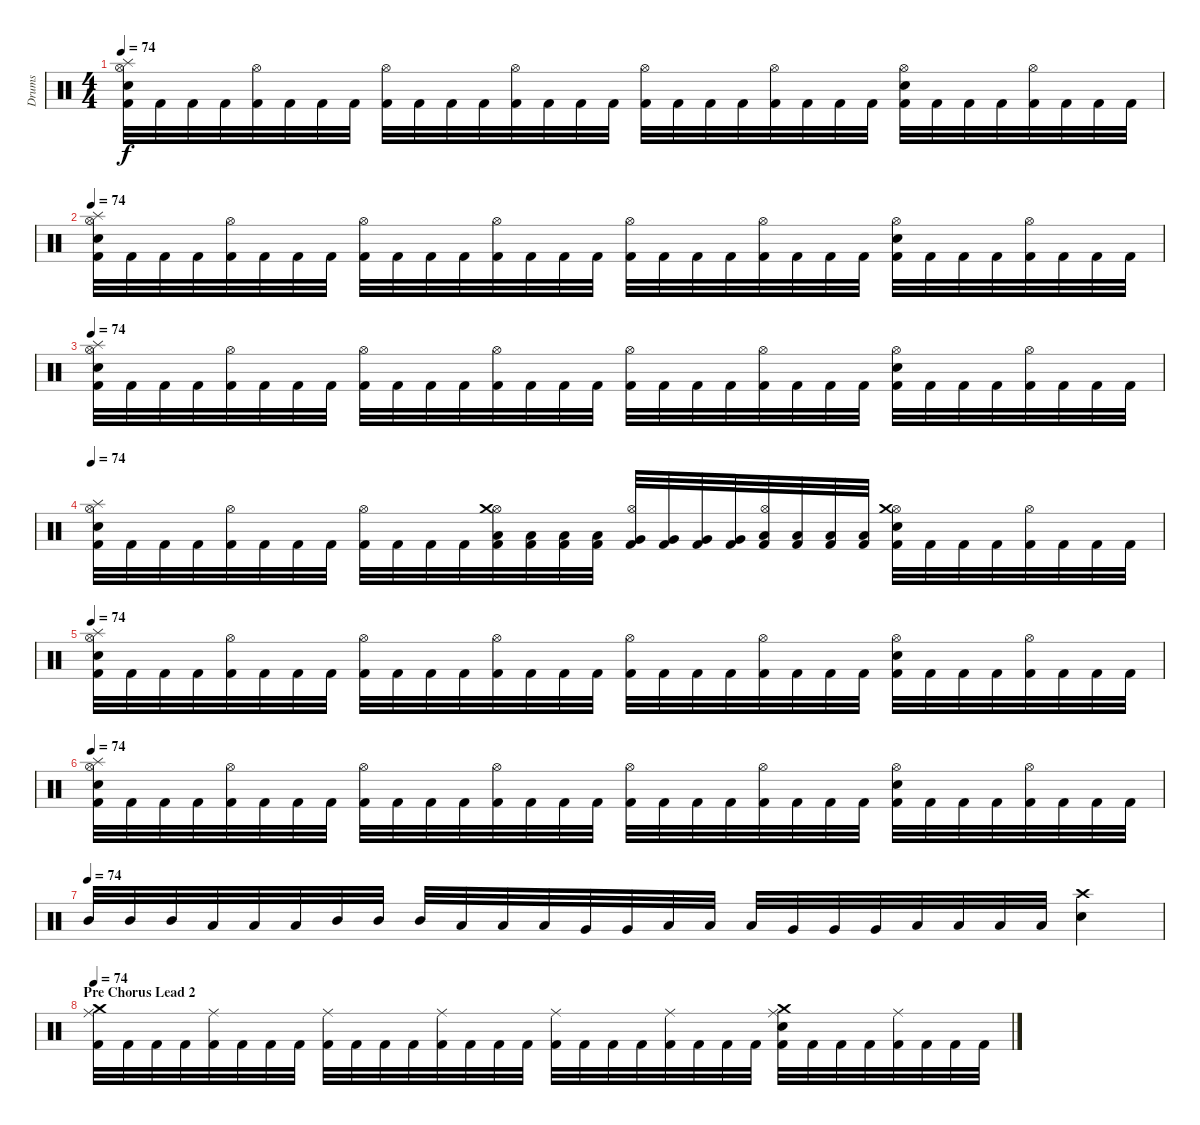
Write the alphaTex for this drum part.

\track ("Drums" "Drums") {instrument percussion}
\staff {score}
\articulation defaults
\ts (4 4)
\tempo 74
\clef neutral
\ks c
("Electric Snare (hit)" "Splash (hit)" "Kick (hit) 2" "Hi-Hat (open)").32{dy f} "Kick (hit) 2".32 "Kick (hit) 2".32 "Kick (hit) 2".32 ("Hi-Hat (open)" "Kick (hit) 2").32 "Kick (hit) 2".32 "Kick (hit) 2".32 "Kick (hit) 2".32 ("Hi-Hat (open)" "Kick (hit) 2").32 "Kick (hit) 2".32 "Kick (hit) 2".32 "Kick (hit) 2".32 ("Hi-Hat (open)" "Kick (hit) 2").32 "Kick (hit) 2".32 "Kick (hit) 2".32 "Kick (hit) 2".32 ("Hi-Hat (open)" "Kick (hit) 2").32 "Kick (hit) 2".32 "Kick (hit) 2".32 "Kick (hit) 2".32 ("Hi-Hat (open)" "Kick (hit) 2").32 "Kick (hit) 2".32 "Kick (hit) 2".32 "Kick (hit) 2".32 ("Hi-Hat (open)" "Electric Snare (hit)" "Kick (hit) 2").32 "Kick (hit) 2".32 "Kick (hit) 2".32 "Kick (hit) 2".32 ("Hi-Hat (open)" "Kick (hit) 2").32 "Kick (hit) 2".32 "Kick (hit) 2".32 "Kick (hit) 2".32 |
\tempo 74
("Hi-Hat (open)" "Kick (hit) 2" "Splash (hit)" "Electric Snare (hit)").32 "Kick (hit) 2".32 "Kick (hit) 2".32 "Kick (hit) 2".32 ("Hi-Hat (open)" "Kick (hit) 2").32 "Kick (hit) 2".32 "Kick (hit) 2".32 "Kick (hit) 2".32 ("Hi-Hat (open)" "Kick (hit) 2").32 "Kick (hit) 2".32 "Kick (hit) 2".32 "Kick (hit) 2".32 ("Hi-Hat (open)" "Kick (hit) 2").32 "Kick (hit) 2".32 "Kick (hit) 2".32 "Kick (hit) 2".32 ("Hi-Hat (open)" "Kick (hit) 2").32 "Kick (hit) 2".32 "Kick (hit) 2".32 "Kick (hit) 2".32 ("Hi-Hat (open)" "Kick (hit) 2").32 "Kick (hit) 2".32 "Kick (hit) 2".32 "Kick (hit) 2".32 ("Hi-Hat (open)" "Electric Snare (hit)" "Kick (hit) 2").32 "Kick (hit) 2".32 "Kick (hit) 2".32 "Kick (hit) 2".32 ("Hi-Hat (open)" "Kick (hit) 2").32 "Kick (hit) 2".32 "Kick (hit) 2".32 "Kick (hit) 2".32 |
\tempo 74
("Hi-Hat (open)" "Kick (hit) 2" "Splash (hit)" "Electric Snare (hit)").32 "Kick (hit) 2".32 "Kick (hit) 2".32 "Kick (hit) 2".32 ("Hi-Hat (open)" "Kick (hit) 2").32 "Kick (hit) 2".32 "Kick (hit) 2".32 "Kick (hit) 2".32 ("Hi-Hat (open)" "Kick (hit) 2").32 "Kick (hit) 2".32 "Kick (hit) 2".32 "Kick (hit) 2".32 ("Hi-Hat (open)" "Kick (hit) 2").32 "Kick (hit) 2".32 "Kick (hit) 2".32 "Kick (hit) 2".32 ("Hi-Hat (open)" "Kick (hit) 2").32 "Kick (hit) 2".32 "Kick (hit) 2".32 "Kick (hit) 2".32 ("Hi-Hat (open)" "Kick (hit) 2").32 "Kick (hit) 2".32 "Kick (hit) 2".32 "Kick (hit) 2".32 ("Hi-Hat (open)" "Electric Snare (hit)" "Kick (hit) 2").32 "Kick (hit) 2".32 "Kick (hit) 2".32 "Kick (hit) 2".32 ("Hi-Hat (open)" "Kick (hit) 2").32 "Kick (hit) 2".32 "Kick (hit) 2".32 "Kick (hit) 2".32 |
\tempo 74
("Electric Snare (hit)" "Splash (hit)" "Kick (hit) 2" "Hi-Hat (open)").32 "Kick (hit) 2".32 "Kick (hit) 2".32 "Kick (hit) 2".32 ("Hi-Hat (open)" "Kick (hit) 2").32 "Kick (hit) 2".32 "Kick (hit) 2".32 "Kick (hit) 2".32 ("Hi-Hat (open)" "Kick (hit) 2").32 "Kick (hit) 2".32 "Kick (hit) 2".32 "Kick (hit) 2".32 ("Hi-Hat (open)" "Kick (hit) 2" "Low Tom (hit)" "Crash medium (hit)").32 ("Kick (hit) 2" "Low Tom (hit)").32 ("Kick (hit) 2" "Low Tom (hit)").32 ("Kick (hit) 2" "Low Tom (hit)").32 ("Hi-Hat (open)" "Kick (hit) 2" "Very Low Tom (hit)").32 ("Kick (hit) 2" "Very Low Tom (hit)").32 ("Kick (hit) 2" "Very Low Tom (hit)").32 ("Kick (hit) 2" "Very Low Tom (hit)").32 ("Hi-Hat (open)" "Kick (hit) 2" "Low Floor Tom (hit)").32 ("Kick (hit) 2" "Low Floor Tom (hit)").32 ("Kick (hit) 2" "Low Floor Tom (hit)").32 ("Kick (hit) 2" "Low Floor Tom (hit)").32 ("Hi-Hat (open)" "Electric Snare (hit)" "Kick (hit) 2" "Crash medium (hit)").32 "Kick (hit) 2".32 "Kick (hit) 2".32 "Kick (hit) 2".32 ("Hi-Hat (open)" "Kick (hit) 2").32 "Kick (hit) 2".32 "Kick (hit) 2".32 "Kick (hit) 2".32 |
\tempo 74
("Electric Snare (hit)" "Splash (hit)" "Kick (hit) 2" "Hi-Hat (open)").32 "Kick (hit) 2".32 "Kick (hit) 2".32 "Kick (hit) 2".32 ("Hi-Hat (open)" "Kick (hit) 2").32 "Kick (hit) 2".32 "Kick (hit) 2".32 "Kick (hit) 2".32 ("Hi-Hat (open)" "Kick (hit) 2").32 "Kick (hit) 2".32 "Kick (hit) 2".32 "Kick (hit) 2".32 ("Hi-Hat (open)" "Kick (hit) 2").32 "Kick (hit) 2".32 "Kick (hit) 2".32 "Kick (hit) 2".32 ("Hi-Hat (open)" "Kick (hit) 2").32 "Kick (hit) 2".32 "Kick (hit) 2".32 "Kick (hit) 2".32 ("Hi-Hat (open)" "Kick (hit) 2").32 "Kick (hit) 2".32 "Kick (hit) 2".32 "Kick (hit) 2".32 ("Hi-Hat (open)" "Electric Snare (hit)" "Kick (hit) 2").32 "Kick (hit) 2".32 "Kick (hit) 2".32 "Kick (hit) 2".32 ("Hi-Hat (open)" "Kick (hit) 2").32 "Kick (hit) 2".32 "Kick (hit) 2".32 "Kick (hit) 2".32 |
\tempo 74
("Hi-Hat (open)" "Kick (hit) 2" "Splash (hit)" "Electric Snare (hit)").32 "Kick (hit) 2".32 "Kick (hit) 2".32 "Kick (hit) 2".32 ("Hi-Hat (open)" "Kick (hit) 2").32 "Kick (hit) 2".32 "Kick (hit) 2".32 "Kick (hit) 2".32 ("Hi-Hat (open)" "Kick (hit) 2").32 "Kick (hit) 2".32 "Kick (hit) 2".32 "Kick (hit) 2".32 ("Hi-Hat (open)" "Kick (hit) 2").32 "Kick (hit) 2".32 "Kick (hit) 2".32 "Kick (hit) 2".32 ("Hi-Hat (open)" "Kick (hit) 2").32 "Kick (hit) 2".32 "Kick (hit) 2".32 "Kick (hit) 2".32 ("Hi-Hat (open)" "Kick (hit) 2").32 "Kick (hit) 2".32 "Kick (hit) 2".32 "Kick (hit) 2".32 ("Hi-Hat (open)" "Electric Snare (hit)" "Kick (hit) 2").32 "Kick (hit) 2".32 "Kick (hit) 2".32 "Kick (hit) 2".32 ("Hi-Hat (open)" "Kick (hit) 2").32 "Kick (hit) 2".32 "Kick (hit) 2".32 "Kick (hit) 2".32 |
\tempo (74)
"Mid Tom (hit)".32 "Mid Tom (hit)".32 "Mid Tom (hit)".32 "Low Tom (hit)".32 "Low Tom (hit)".32 "Low Tom (hit)".32 "Mid Tom (hit)".32 "Mid Tom (hit)".32 "Mid Tom (hit)".32 "Low Tom (hit)".32 "Low Tom (hit)".32 "Low Tom (hit)".32 "Very Low Tom (hit)".32 "Very Low Tom (hit)".32 "Low Tom (hit)".32 "Low Tom (hit)".32 "Low Tom (hit)".32 "Very Low Tom (hit)".32 "Very Low Tom (hit)".32 "Very Low Tom (hit)".32 "Low Floor Tom (hit)".32 "Low Floor Tom (hit)".32 "Low Floor Tom (hit)".32 "Low Floor Tom (hit)".32 ("Crash high (hit)" "Electric Snare (hit)").4 |
\section ("" "Pre Chorus Lead 2")
\tempo 74
("Kick (hit) 2" "Ride (middle)" "Crash medium (hit)").32 "Kick (hit) 2".32 "Kick (hit) 2".32 "Kick (hit) 2".32 ("Ride (middle)" "Kick (hit) 2").32 "Kick (hit) 2".32 "Kick (hit) 2".32 "Kick (hit) 2".32 ("Ride (middle)" "Kick (hit) 2").32 "Kick (hit) 2".32 "Kick (hit) 2".32 "Kick (hit) 2".32 ("Ride (middle)" "Kick (hit) 2").32 "Kick (hit) 2".32 "Kick (hit) 2".32 "Kick (hit) 2".32 ("Ride (middle)" "Kick (hit) 2").32 "Kick (hit) 2".32 "Kick (hit) 2".32 "Kick (hit) 2".32 ("Ride (middle)" "Kick (hit) 2").32 "Kick (hit) 2".32 "Kick (hit) 2".32 "Kick (hit) 2".32 ("Crash medium (hit)" "Ride (middle)" "Kick (hit) 2" "Electric Snare (hit)").32 "Kick (hit) 2".32 "Kick (hit) 2".32 "Kick (hit) 2".32 ("Ride (middle)" "Kick (hit) 2").32 "Kick (hit) 2".32 "Kick (hit) 2".32 "Kick (hit) 2".32
